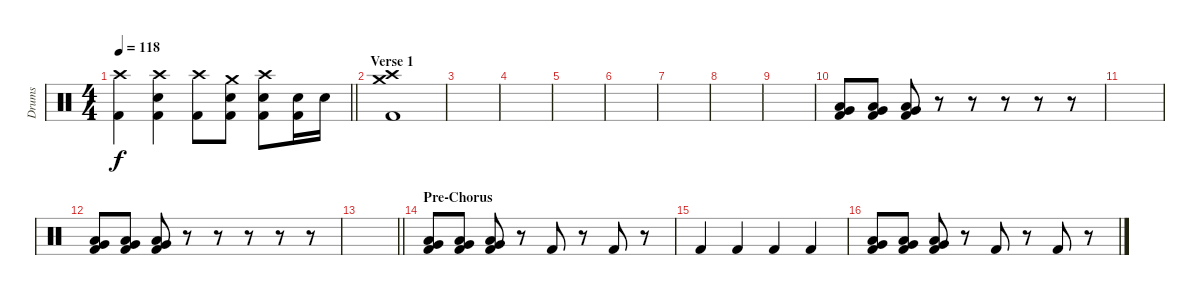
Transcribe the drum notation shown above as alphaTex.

\track ("Drums" "Drums") {instrument percussion}
\staff {score}
\articulation defaults
\ts (4 4)
\tempo 118
\clef neutral
\barLineRight lightlight
\ks c
("Crash high (hit)" "Kick (hit) 2").4{dy f} ("Crash high (hit)" "Snare (hit) 2" "Kick (hit) 2").4 ("Crash high (hit)" "Kick (hit) 2").8 ("Crash medium (hit)" "Snare (hit) 2" "Kick (hit) 2").8 ("Crash high (hit)" "Snare (hit) 2" "Kick (hit) 2").8 ("Snare (hit) 2" "Kick (hit) 2").16 "Snare (hit) 2".16 |
\section ("" "Verse 1")
("Crash medium (hit)" "Crash high (hit)" "Kick (hit) 2").1 |
|
|
|
|
|
|
|
("Very Low Tom (hit)" "Low Floor Tom (hit)" "Kick (hit) 2").8 ("Very Low Tom (hit)" "Low Floor Tom (hit)" "Kick (hit) 2").8 ("Very Low Tom (hit)" "Low Floor Tom (hit)" "Kick (hit) 2").8 r.8 r.8 r.8 r.8 r.8 |
|
("Very Low Tom (hit)" "Low Floor Tom (hit)" "Kick (hit) 2").8 ("Very Low Tom (hit)" "Low Floor Tom (hit)" "Kick (hit) 2").8 ("Very Low Tom (hit)" "Low Floor Tom (hit)" "Kick (hit) 2").8 r.8 r.8 r.8 r.8 r.8 |
\barLineRight lightlight
|
\section ("" "Pre-Chorus")
("Very Low Tom (hit)" "Low Floor Tom (hit)" "Kick (hit) 2").8 ("Very Low Tom (hit)" "Low Floor Tom (hit)" "Kick (hit) 2").8 ("Very Low Tom (hit)" "Low Floor Tom (hit)" "Kick (hit) 2").8 r.8 "Kick (hit) 2".8 r.8 "Kick (hit) 2".8 r.8 |
"Kick (hit) 2".4 "Kick (hit) 2".4 "Kick (hit) 2".4 "Kick (hit) 2".4 |
("Very Low Tom (hit)" "Low Floor Tom (hit)" "Kick (hit) 2").8 ("Very Low Tom (hit)" "Low Floor Tom (hit)" "Kick (hit) 2").8 ("Very Low Tom (hit)" "Low Floor Tom (hit)" "Kick (hit) 2").8 r.8 "Kick (hit) 2".8 r.8 "Kick (hit) 2".8 r.8
